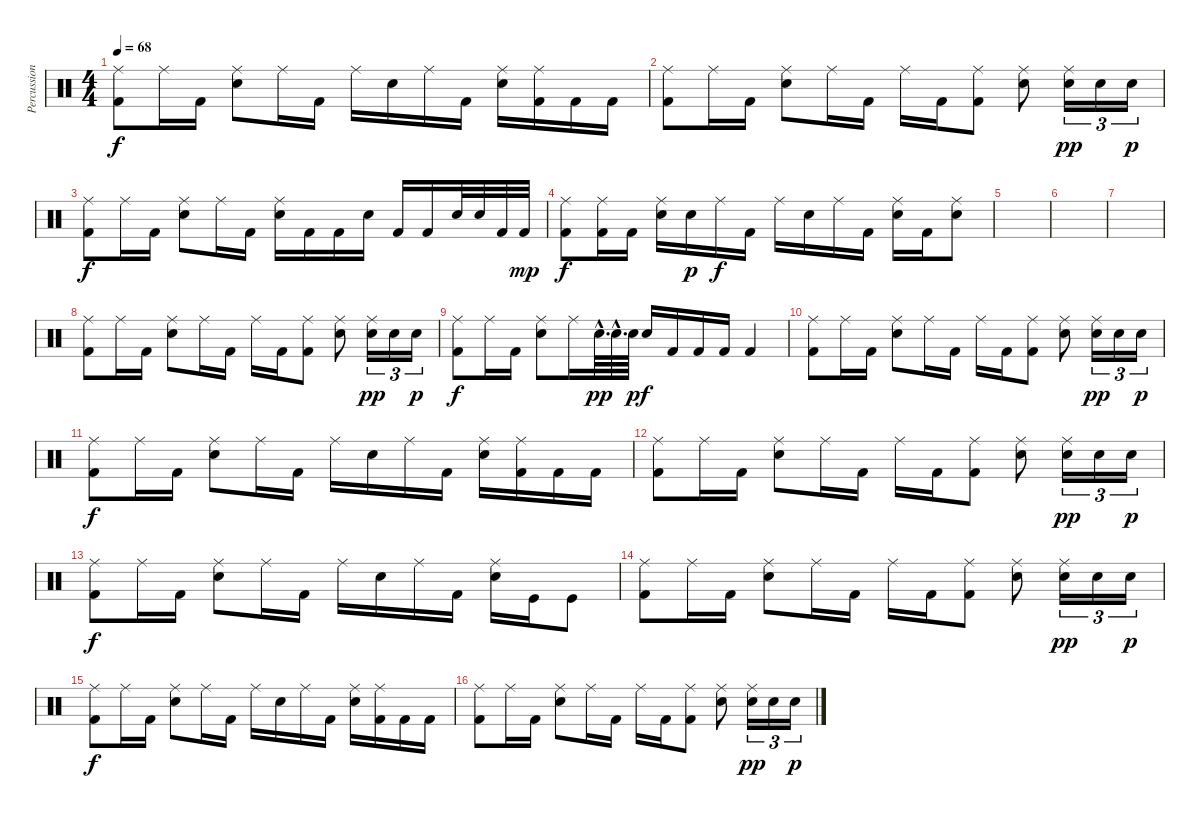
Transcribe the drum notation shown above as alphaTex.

\track ("Percussion" "Percussion") {instrument percussion}
\staff {score}
\articulation defaults
\ts (4 4)
\tempo 68
\clef neutral
\ks c
("Ride (middle)" "Kick (hit) 2").8{dy f} "Ride (middle)".16 "Kick (hit) 2".16 ("Ride (middle)" "Snare (hit) 2").8 "Ride (middle)".16 "Kick (hit) 2".16 "Ride (middle)".16 "Snare (hit) 2".16 "Ride (middle)".16 "Kick (hit) 2".16 ("Ride (middle)" "Snare (hit) 2").16 ("Ride (middle)" "Kick (hit) 2").16 "Kick (hit) 2".16 "Kick (hit) 2".16 |
("Ride (middle)" "Kick (hit) 2").8 "Ride (middle)".16 "Kick (hit) 2".16 ("Ride (middle)" "Snare (hit) 2").8 "Ride (middle)".16 "Kick (hit) 2".16 "Ride (middle)".16 "Kick (hit) 2".16 ("Ride (middle)" "Kick (hit) 2").8 ("Ride (middle)" "Snare (hit) 2").8 ("Ride (middle)" "Snare (hit) 2").16{tu (3 2) dy pp} "Snare (hit) 2".16{tu (3 2)} "Snare (hit) 2".16{tu (3 2) dy p} |
("Ride (middle)" "Kick (hit) 2").8{dy f} "Ride (middle)".16 "Kick (hit) 2".16 ("Ride (middle)" "Snare (hit) 2").8 "Ride (middle)".16 "Kick (hit) 2".16 ("Ride (middle)" "Snare (hit) 2").16 "Kick (hit) 2".16 "Kick (hit) 2".16 "Snare (hit) 2".16 "Kick (hit) 2".16 "Kick (hit) 2".16 "Snare (hit) 2".32 "Snare (hit) 2".32 "Kick (hit) 2".32 "Kick (hit) 2".32{dy mp} |
("Ride (middle)" "Kick (hit) 2").8{dy f} ("Ride (middle)" "Kick (hit) 2").16 "Kick (hit) 2".16 ("Ride (middle)" "Snare (hit) 2").16 "Snare (hit) 2".16{dy p} "Ride (middle)".16{dy f} "Kick (hit) 2".16 "Ride (middle)".16 "Snare (hit) 2".16 "Ride (middle)".16 "Kick (hit) 2".16 ("Ride (middle)" "Snare (hit) 2").16 "Kick (hit) 2".16 ("Ride (middle)" "Snare (hit) 2").8 |
|
|
|
("Ride (middle)" "Kick (hit) 2").8 "Ride (middle)".16 "Kick (hit) 2".16 ("Ride (middle)" "Snare (hit) 2").8 "Ride (middle)".16 "Kick (hit) 2".16 "Ride (middle)".16 "Kick (hit) 2".16 ("Ride (middle)" "Kick (hit) 2").8 ("Ride (middle)" "Snare (hit) 2").8 ("Ride (middle)" "Snare (hit) 2").16{tu (3 2) dy pp} "Snare (hit) 2".16{tu (3 2)} "Snare (hit) 2".16{tu (3 2) dy p} |
("Ride (middle)" "Kick (hit) 2").8{dy f} "Ride (middle)".16 "Kick (hit) 2".16 ("Ride (middle)" "Snare (hit) 2").8 "Ride (middle)".16 "Snare (hit) 2"{hac}.64{d dy pp} "Snare (hit) 2"{hac}.64{d} "Snare (hit) 2".64{dy p} "Snare (hit) 2".16{dy f} "Kick (hit) 2".16 "Kick (hit) 2".16 "Kick (hit) 2".16 "Kick (hit) 2".4 |
("Ride (middle)" "Kick (hit) 2").8 "Ride (middle)".16 "Kick (hit) 2".16 ("Ride (middle)" "Snare (hit) 2").8 "Ride (middle)".16 "Kick (hit) 2".16 "Ride (middle)".16 "Kick (hit) 2".16 ("Ride (middle)" "Kick (hit) 2").8 ("Ride (middle)" "Snare (hit) 2").8 ("Ride (middle)" "Snare (hit) 2").16{tu (3 2) dy pp} "Snare (hit) 2".16{tu (3 2)} "Snare (hit) 2".16{tu (3 2) dy p} |
("Ride (middle)" "Kick (hit) 2").8{dy f} "Ride (middle)".16 "Kick (hit) 2".16 ("Ride (middle)" "Snare (hit) 2").8 "Ride (middle)".16 "Kick (hit) 2".16 "Ride (middle)".16 "Snare (hit) 2".16 "Ride (middle)".16 "Kick (hit) 2".16 ("Ride (middle)" "Snare (hit) 2").16 ("Ride (middle)" "Kick (hit) 2").16 "Kick (hit) 2".16 "Kick (hit) 2".16 |
("Ride (middle)" "Kick (hit) 2").8 "Ride (middle)".16 "Kick (hit) 2".16 ("Ride (middle)" "Snare (hit) 2").8 "Ride (middle)".16 "Kick (hit) 2".16 "Ride (middle)".16 "Kick (hit) 2".16 ("Ride (middle)" "Kick (hit) 2").8 ("Ride (middle)" "Snare (hit) 2").8 ("Ride (middle)" "Snare (hit) 2").16{tu (3 2) dy pp} "Snare (hit) 2".16{tu (3 2)} "Snare (hit) 2".16{tu (3 2) dy p} |
("Ride (middle)" "Kick (hit) 2").8{dy f} "Ride (middle)".16 "Kick (hit) 2".16 ("Ride (middle)" "Snare (hit) 2").8 "Ride (middle)".16 "Kick (hit) 2".16 "Ride (middle)".16 "Snare (hit) 2".16 "Ride (middle)".16 "Kick (hit) 2".16 ("Ride (middle)" "Snare (hit) 2").16 "Kick (hit)".16 "Kick (hit)".8 |
("Ride (middle)" "Kick (hit) 2").8 "Ride (middle)".16 "Kick (hit) 2".16 ("Ride (middle)" "Snare (hit) 2").8 "Ride (middle)".16 "Kick (hit) 2".16 "Ride (middle)".16 "Kick (hit) 2".16 ("Ride (middle)" "Kick (hit) 2").8 ("Ride (middle)" "Snare (hit) 2").8 ("Ride (middle)" "Snare (hit) 2").16{tu (3 2) dy pp} "Snare (hit) 2".16{tu (3 2)} "Snare (hit) 2".16{tu (3 2) dy p} |
("Ride (middle)" "Kick (hit) 2").8{dy f} "Ride (middle)".16 "Kick (hit) 2".16 ("Ride (middle)" "Snare (hit) 2").8 "Ride (middle)".16 "Kick (hit) 2".16 "Ride (middle)".16 "Snare (hit) 2".16 "Ride (middle)".16 "Kick (hit) 2".16 ("Ride (middle)" "Snare (hit) 2").16 ("Ride (middle)" "Kick (hit) 2").16 "Kick (hit) 2".16 "Kick (hit) 2".16 |
("Ride (middle)" "Kick (hit) 2").8 "Ride (middle)".16 "Kick (hit) 2".16 ("Ride (middle)" "Snare (hit) 2").8 "Ride (middle)".16 "Kick (hit) 2".16 "Ride (middle)".16 "Kick (hit) 2".16 ("Ride (middle)" "Kick (hit) 2").8 ("Ride (middle)" "Snare (hit) 2").8 ("Ride (middle)" "Snare (hit) 2").16{tu (3 2) dy pp} "Snare (hit) 2".16{tu (3 2)} "Snare (hit) 2".16{tu (3 2) dy p}
